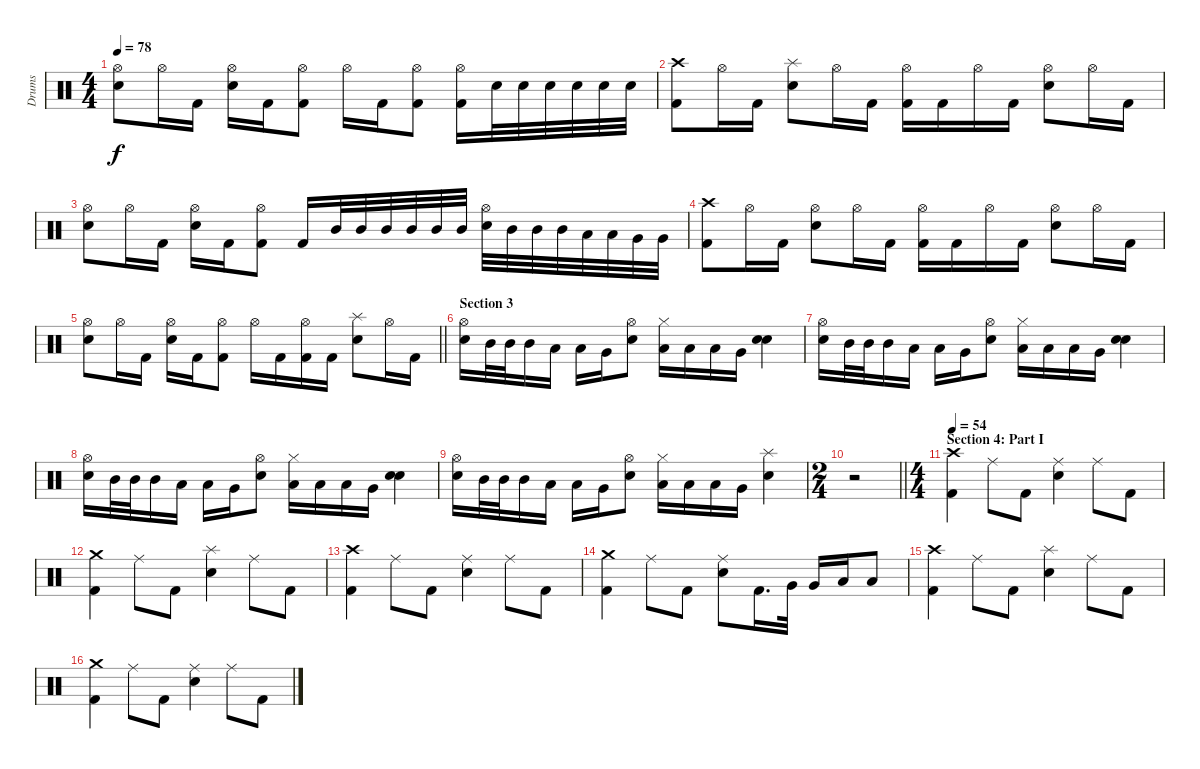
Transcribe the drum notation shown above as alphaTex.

\track ("Drums" "Drums") {instrument percussion}
\staff {score}
\articulation defaults
\ts (4 4)
\tempo 78
\clef neutral
\ks c
("Hi-Hat (open)" "Electric Snare (hit)").8{dy f} "Hi-Hat (open)".16 "Kick (hit) 2".16 ("Hi-Hat (open)" "Electric Snare (hit)").16 "Kick (hit) 2".16 ("Hi-Hat (open)" "Kick (hit) 2").8 "Hi-Hat (open)".16 "Kick (hit) 2".16 ("Hi-Hat (open)" "Kick (hit) 2").8 ("Hi-Hat (open)" "Kick (hit) 2").16 "Electric Snare (hit)".32 "Electric Snare (hit)".32 "Electric Snare (hit)".32 "Electric Snare (hit)".32 "Electric Snare (hit)".32 "Electric Snare (hit)".32 |
("Crash high (hit)" "Kick (hit) 2").8 "Hi-Hat (open)".16 "Kick (hit) 2".16 ("Splash (hit)" "Electric Snare (hit)").8 "Hi-Hat (open)".16 "Kick (hit) 2".16 ("Hi-Hat (open)" "Kick (hit) 2").16 "Kick (hit) 2".16 "Hi-Hat (open)".16 "Kick (hit) 2".16 ("Hi-Hat (open)" "Electric Snare (hit)").8 "Hi-Hat (open)".16 "Kick (hit) 2".16 |
("Hi-Hat (open)" "Electric Snare (hit)").8 "Hi-Hat (open)".16 "Kick (hit) 2".16 ("Hi-Hat (open)" "Electric Snare (hit)").16 "Kick (hit) 2".16 ("Hi-Hat (open)" "Kick (hit) 2").8 "Kick (hit) 2".16 "Mid Tom (hit)".32 "Mid Tom (hit)".32 "Mid Tom (hit)".32 "Mid Tom (hit)".32 "Mid Tom (hit)".32 "Mid Tom (hit)".32 ("Hi-Hat (open)" "Electric Snare (hit)").32 "Mid Tom (hit)".32 "Mid Tom (hit)".32 "Mid Tom (hit)".32 "Low Tom (hit)".32 "Low Tom (hit)".32 "Very Low Tom (hit)".32 "Very Low Tom (hit)".32 |
("Crash high (hit)" "Kick (hit) 2").8 "Hi-Hat (open)".16 "Kick (hit) 2".16 ("Hi-Hat (open)" "Electric Snare (hit)").8 "Hi-Hat (open)".16 "Kick (hit) 2".16 ("Hi-Hat (open)" "Kick (hit) 2").16 "Kick (hit) 2".16 "Hi-Hat (open)".16 "Kick (hit) 2".16 ("Hi-Hat (open)" "Electric Snare (hit)").8 "Hi-Hat (open)".16 "Kick (hit) 2".16 |
\barLineRight lightlight
("Hi-Hat (open)" "Electric Snare (hit)").8 "Hi-Hat (open)".16 "Kick (hit) 2".16 ("Hi-Hat (open)" "Electric Snare (hit)").16 "Kick (hit) 2".16 ("Hi-Hat (open)" "Kick (hit) 2").8 "Hi-Hat (open)".16 "Kick (hit) 2".16 ("Hi-Hat (open)" "Kick (hit) 2").16 "Kick (hit) 2".16 ("Splash (hit)" "Electric Snare (hit)").8 "Hi-Hat (open)".16 "Kick (hit) 2".16 |
\section ("" "Section 3")
("Hi-Hat (open)" "Electric Snare (hit)").16 "Mid Tom (hit)".32 "Mid Tom (hit)".32 "Mid Tom (hit)".16 "Low Tom (hit)".16 "Low Tom (hit)".16 "Very Low Tom (hit)".16 ("Hi-Hat (open)" "Electric Snare (hit)").8 ("Hi-Hat (closed)" "Low Tom (hit)").16 "Low Tom (hit)".16 "Low Tom (hit)".16 "Very Low Tom (hit)".16 ("Electric Snare (hit)" "Electric Snare (hit)").4{bu 60} |
("Hi-Hat (open)" "Electric Snare (hit)").16 "Mid Tom (hit)".32 "Mid Tom (hit)".32 "Mid Tom (hit)".16 "Low Tom (hit)".16 "Low Tom (hit)".16 "Very Low Tom (hit)".16 ("Hi-Hat (open)" "Electric Snare (hit)").8 ("Hi-Hat (closed)" "Low Tom (hit)").16 "Low Tom (hit)".16 "Low Tom (hit)".16 "Very Low Tom (hit)".16 ("Electric Snare (hit)" "Electric Snare (hit)").4{bu 60} |
("Hi-Hat (open)" "Electric Snare (hit)").16 "Mid Tom (hit)".32 "Mid Tom (hit)".32 "Mid Tom (hit)".16 "Low Tom (hit)".16 "Low Tom (hit)".16 "Very Low Tom (hit)".16 ("Hi-Hat (open)" "Electric Snare (hit)").8 ("Hi-Hat (closed)" "Low Tom (hit)").16 "Low Tom (hit)".16 "Low Tom (hit)".16 "Very Low Tom (hit)".16 ("Electric Snare (hit)" "Electric Snare (hit)").4{bu 60} |
("Hi-Hat (open)" "Electric Snare (hit)").16 "Mid Tom (hit)".32 "Mid Tom (hit)".32 "Mid Tom (hit)".16 "Low Tom (hit)".16 "Low Tom (hit)".16 "Very Low Tom (hit)".16 ("Hi-Hat (open)" "Electric Snare (hit)").8 ("Hi-Hat (closed)" "Low Tom (hit)").16 "Low Tom (hit)".16 "Low Tom (hit)".16 "Very Low Tom (hit)".16 ("Splash (hit)" "Electric Snare (hit)").4 |
\ts (2 4)
\barLineRight lightlight
r.2 |
\ts (4 4)
\section ("" "Section 4: Part I")
\tempo 54
("Crash high (hit)" "Kick (hit) 2").4 "Ride (middle)".8 "Kick (hit) 2".8 ("Ride (middle)" "Electric Snare (hit)").4 "Ride (middle)".8 "Kick (hit) 2".8 |
("Crash medium (hit)" "Kick (hit) 2").4 "Ride (middle)".8 "Kick (hit) 2".8 ("Splash (hit)" "Electric Snare (hit)").4 "Ride (middle)".8 "Kick (hit) 2".8 |
("Crash high (hit)" "Kick (hit) 2").4 "Ride (middle)".8 "Kick (hit) 2".8 ("Ride (middle)" "Electric Snare (hit)").4 "Ride (middle)".8 "Kick (hit) 2".8 |
("Crash medium (hit)" "Kick (hit) 2").4 "Ride (middle)".8 "Kick (hit) 2".8 ("Ride (middle)" "Electric Snare (hit)").8 "Kick (hit) 2".16{d} "Very Low Tom (hit)".32 "Very Low Tom (hit)".16 "Low Floor Tom (hit)".16 "Low Floor Tom (hit)".8 |
("Crash high (hit)" "Kick (hit) 2").4 "Ride (middle)".8 "Kick (hit) 2".8 ("Splash (hit)" "Electric Snare (hit)").4 "Ride (middle)".8 "Kick (hit) 2".8 |
("Crash medium (hit)" "Kick (hit) 2").4 "Ride (middle)".8 "Kick (hit) 2".8 ("Ride (middle)" "Electric Snare (hit)").4 "Ride (middle)".8 "Kick (hit) 2".8
